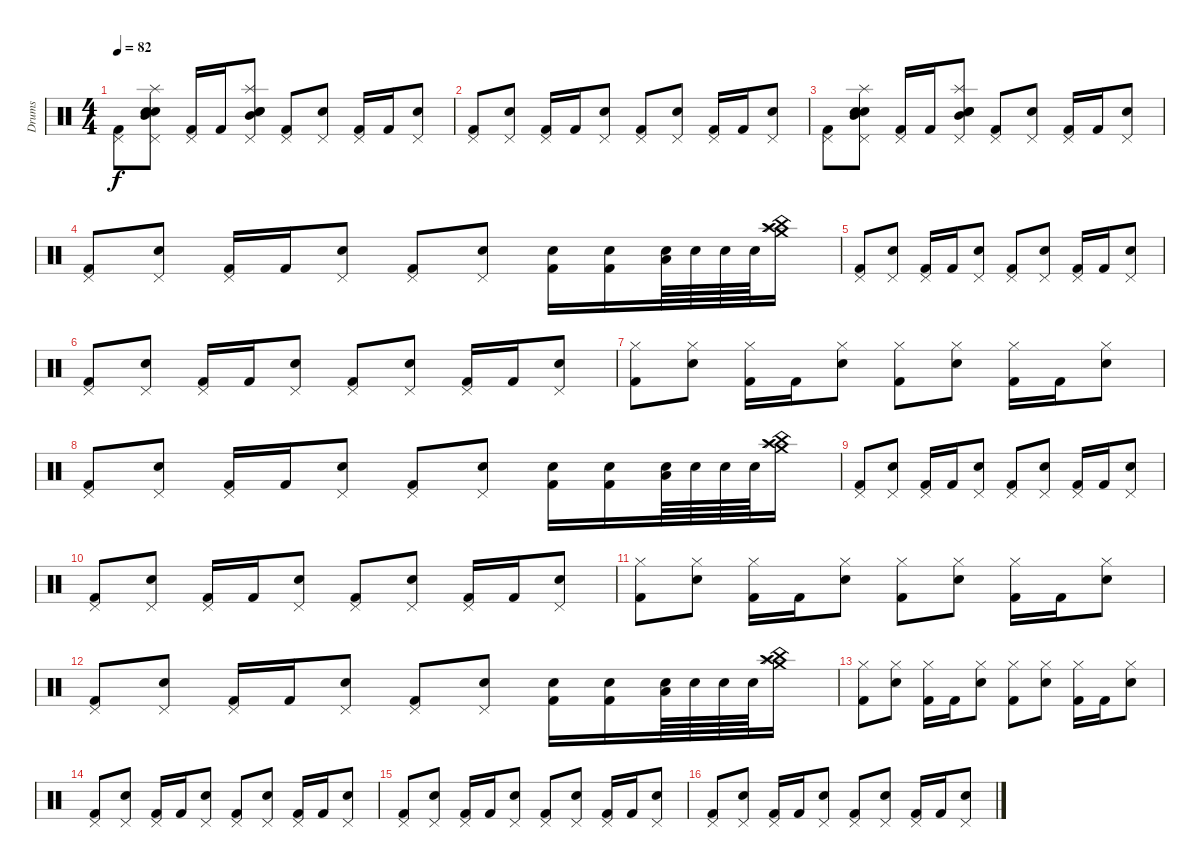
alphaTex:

\track ("Drums" "Drums") {instrument percussion}
\staff {score}
\articulation defaults
\ts (4 4)
\tempo 82
\clef neutral
\ks c
("Kick (hit) 2" "Pedal Hi-Hat (hit)").8{dy f} ("Mid Tom (hit)" "Snare (hit) 2" "Snare (hit) 2" "Splash (hit)" "Pedal Hi-Hat (hit)").8 ("Kick (hit) 2" "Pedal Hi-Hat (hit)").16 "Kick (hit) 2".16 ("Mid Tom (hit)" "Snare (hit) 2" "Electric Snare (hit)" "Splash (hit)" "Pedal Hi-Hat (hit)").8 ("Kick (hit) 2" "Pedal Hi-Hat (hit)").8 ("Snare (hit) 2" "Pedal Hi-Hat (hit)").8 ("Kick (hit) 2" "Pedal Hi-Hat (hit)").16 "Kick (hit) 2".16 ("Snare (hit) 2" "Pedal Hi-Hat (hit)").8 |
("Kick (hit) 2" "Pedal Hi-Hat (hit)").8 ("Snare (hit) 2" "Pedal Hi-Hat (hit)").8 ("Kick (hit) 2" "Pedal Hi-Hat (hit)").16 "Kick (hit) 2".16 ("Snare (hit) 2" "Pedal Hi-Hat (hit)").8 ("Kick (hit) 2" "Pedal Hi-Hat (hit)").8 ("Snare (hit) 2" "Pedal Hi-Hat (hit)").8 ("Kick (hit) 2" "Pedal Hi-Hat (hit)").16 "Kick (hit) 2".16 ("Snare (hit) 2" "Pedal Hi-Hat (hit)").8 |
("Kick (hit) 2" "Pedal Hi-Hat (hit)").8 ("Mid Tom (hit)" "Snare (hit) 2" "Snare (hit) 2" "Splash (hit)" "Pedal Hi-Hat (hit)").8 ("Kick (hit) 2" "Pedal Hi-Hat (hit)").16 "Kick (hit) 2".16 ("Mid Tom (hit)" "Snare (hit) 2" "Electric Snare (hit)" "Splash (hit)" "Pedal Hi-Hat (hit)").8 ("Kick (hit) 2" "Pedal Hi-Hat (hit)").8 ("Snare (hit) 2" "Pedal Hi-Hat (hit)").8 ("Kick (hit) 2" "Pedal Hi-Hat (hit)").16 "Kick (hit) 2".16 ("Snare (hit) 2" "Pedal Hi-Hat (hit)").8 |
("Kick (hit) 2" "Pedal Hi-Hat (hit)").8 ("Snare (hit) 2" "Pedal Hi-Hat (hit)").8 ("Kick (hit) 2" "Pedal Hi-Hat (hit)").16 "Kick (hit) 2".16 ("Snare (hit) 2" "Pedal Hi-Hat (hit)").8 ("Kick (hit) 2" "Pedal Hi-Hat (hit)").8 ("Snare (hit) 2" "Pedal Hi-Hat (hit)").8 ("Kick (hit) 2" "Electric Snare (hit)").16 ("Kick (hit) 2" "Electric Snare (hit)").16 ("Snare (hit) 2" "Low Floor Tom (hit)").64 "Snare (hit) 2".64 "Snare (hit) 2".64 "Snare (hit) 2".64 ("China (hit)" "Crash high (hit)" "Splash (hit)" "Crash medium (hit)").16 |
("Kick (hit) 2" "Pedal Hi-Hat (hit)").8 ("Snare (hit) 2" "Pedal Hi-Hat (hit)").8 ("Kick (hit) 2" "Pedal Hi-Hat (hit)").16 "Kick (hit) 2".16 ("Snare (hit) 2" "Pedal Hi-Hat (hit)").8 ("Kick (hit) 2" "Pedal Hi-Hat (hit)").8 ("Snare (hit) 2" "Pedal Hi-Hat (hit)").8 ("Kick (hit) 2" "Pedal Hi-Hat (hit)").16 "Kick (hit) 2".16 ("Snare (hit) 2" "Pedal Hi-Hat (hit)").8 |
("Kick (hit) 2" "Pedal Hi-Hat (hit)").8 ("Snare (hit) 2" "Pedal Hi-Hat (hit)").8 ("Kick (hit) 2" "Pedal Hi-Hat (hit)").16 "Kick (hit) 2".16 ("Snare (hit) 2" "Pedal Hi-Hat (hit)").8 ("Kick (hit) 2" "Pedal Hi-Hat (hit)").8 ("Snare (hit) 2" "Pedal Hi-Hat (hit)").8 ("Kick (hit) 2" "Pedal Hi-Hat (hit)").16 "Kick (hit) 2".16 ("Snare (hit) 2" "Pedal Hi-Hat (hit)").8 |
("Kick (hit) 2" "Hi-Hat (closed)").8 ("Snare (hit) 2" "Hi-Hat (closed)").8 ("Kick (hit) 2" "Hi-Hat (closed)").16 "Kick (hit) 2".16 ("Snare (hit) 2" "Hi-Hat (closed)").8 ("Kick (hit) 2" "Hi-Hat (closed)").8 ("Snare (hit) 2" "Hi-Hat (closed)").8 ("Kick (hit) 2" "Hi-Hat (closed)").16 "Kick (hit) 2".16 ("Snare (hit) 2" "Hi-Hat (closed)").8 |
("Kick (hit) 2" "Pedal Hi-Hat (hit)").8 ("Snare (hit) 2" "Pedal Hi-Hat (hit)").8 ("Kick (hit) 2" "Pedal Hi-Hat (hit)").16 "Kick (hit) 2".16 ("Snare (hit) 2" "Pedal Hi-Hat (hit)").8 ("Kick (hit) 2" "Pedal Hi-Hat (hit)").8 ("Snare (hit) 2" "Pedal Hi-Hat (hit)").8 ("Kick (hit) 2" "Electric Snare (hit)").16 ("Kick (hit) 2" "Electric Snare (hit)").16 ("Snare (hit) 2" "Low Floor Tom (hit)").64 "Snare (hit) 2".64 "Snare (hit) 2".64 "Snare (hit) 2".64 ("China (hit)" "Crash high (hit)" "Splash (hit)" "Crash medium (hit)").16 |
("Kick (hit) 2" "Pedal Hi-Hat (hit)").8 ("Snare (hit) 2" "Pedal Hi-Hat (hit)").8 ("Kick (hit) 2" "Pedal Hi-Hat (hit)").16 "Kick (hit) 2".16 ("Snare (hit) 2" "Pedal Hi-Hat (hit)").8 ("Kick (hit) 2" "Pedal Hi-Hat (hit)").8 ("Snare (hit) 2" "Pedal Hi-Hat (hit)").8 ("Kick (hit) 2" "Pedal Hi-Hat (hit)").16 "Kick (hit) 2".16 ("Snare (hit) 2" "Pedal Hi-Hat (hit)").8 |
("Kick (hit) 2" "Pedal Hi-Hat (hit)").8 ("Snare (hit) 2" "Pedal Hi-Hat (hit)").8 ("Kick (hit) 2" "Pedal Hi-Hat (hit)").16 "Kick (hit) 2".16 ("Snare (hit) 2" "Pedal Hi-Hat (hit)").8 ("Kick (hit) 2" "Pedal Hi-Hat (hit)").8 ("Snare (hit) 2" "Pedal Hi-Hat (hit)").8 ("Kick (hit) 2" "Pedal Hi-Hat (hit)").16 "Kick (hit) 2".16 ("Snare (hit) 2" "Pedal Hi-Hat (hit)").8 |
("Kick (hit) 2" "Hi-Hat (closed)").8 ("Snare (hit) 2" "Hi-Hat (closed)").8 ("Kick (hit) 2" "Hi-Hat (closed)").16 "Kick (hit) 2".16 ("Snare (hit) 2" "Hi-Hat (closed)").8 ("Kick (hit) 2" "Hi-Hat (closed)").8 ("Snare (hit) 2" "Hi-Hat (closed)").8 ("Kick (hit) 2" "Hi-Hat (closed)").16 "Kick (hit) 2".16 ("Snare (hit) 2" "Hi-Hat (closed)").8 |
("Kick (hit) 2" "Pedal Hi-Hat (hit)").8 ("Snare (hit) 2" "Pedal Hi-Hat (hit)").8 ("Kick (hit) 2" "Pedal Hi-Hat (hit)").16 "Kick (hit) 2".16 ("Snare (hit) 2" "Pedal Hi-Hat (hit)").8 ("Kick (hit) 2" "Pedal Hi-Hat (hit)").8 ("Snare (hit) 2" "Pedal Hi-Hat (hit)").8 ("Kick (hit) 2" "Electric Snare (hit)").16 ("Kick (hit) 2" "Electric Snare (hit)").16 ("Snare (hit) 2" "Low Floor Tom (hit)").64 "Snare (hit) 2".64 "Snare (hit) 2".64 "Snare (hit) 2".64 ("China (hit)" "Crash high (hit)" "Splash (hit)" "Crash medium (hit)").16 |
("Kick (hit) 2" "Hi-Hat (closed)").8 ("Snare (hit) 2" "Hi-Hat (closed)").8 ("Kick (hit) 2" "Hi-Hat (closed)").16 "Kick (hit) 2".16 ("Snare (hit) 2" "Hi-Hat (closed)").8 ("Kick (hit) 2" "Hi-Hat (closed)").8 ("Snare (hit) 2" "Hi-Hat (closed)").8 ("Kick (hit) 2" "Hi-Hat (closed)").16 "Kick (hit) 2".16 ("Snare (hit) 2" "Hi-Hat (closed)").8 |
("Kick (hit) 2" "Pedal Hi-Hat (hit)").8 ("Snare (hit) 2" "Pedal Hi-Hat (hit)").8 ("Kick (hit) 2" "Pedal Hi-Hat (hit)").16 "Kick (hit) 2".16 ("Snare (hit) 2" "Pedal Hi-Hat (hit)").8 ("Kick (hit) 2" "Pedal Hi-Hat (hit)").8 ("Snare (hit) 2" "Pedal Hi-Hat (hit)").8 ("Kick (hit) 2" "Pedal Hi-Hat (hit)").16 "Kick (hit) 2".16 ("Snare (hit) 2" "Pedal Hi-Hat (hit)").8 |
("Kick (hit) 2" "Pedal Hi-Hat (hit)").8 ("Snare (hit) 2" "Pedal Hi-Hat (hit)").8 ("Kick (hit) 2" "Pedal Hi-Hat (hit)").16 "Kick (hit) 2".16 ("Snare (hit) 2" "Pedal Hi-Hat (hit)").8 ("Kick (hit) 2" "Pedal Hi-Hat (hit)").8 ("Snare (hit) 2" "Pedal Hi-Hat (hit)").8 ("Kick (hit) 2" "Pedal Hi-Hat (hit)").16 "Kick (hit) 2".16 ("Snare (hit) 2" "Pedal Hi-Hat (hit)").8 |
("Kick (hit) 2" "Pedal Hi-Hat (hit)").8 ("Snare (hit) 2" "Pedal Hi-Hat (hit)").8 ("Kick (hit) 2" "Pedal Hi-Hat (hit)").16 "Kick (hit) 2".16 ("Snare (hit) 2" "Pedal Hi-Hat (hit)").8 ("Kick (hit) 2" "Pedal Hi-Hat (hit)").8 ("Snare (hit) 2" "Pedal Hi-Hat (hit)").8 ("Kick (hit) 2" "Pedal Hi-Hat (hit)").16 "Kick (hit) 2".16 ("Snare (hit) 2" "Pedal Hi-Hat (hit)").8
